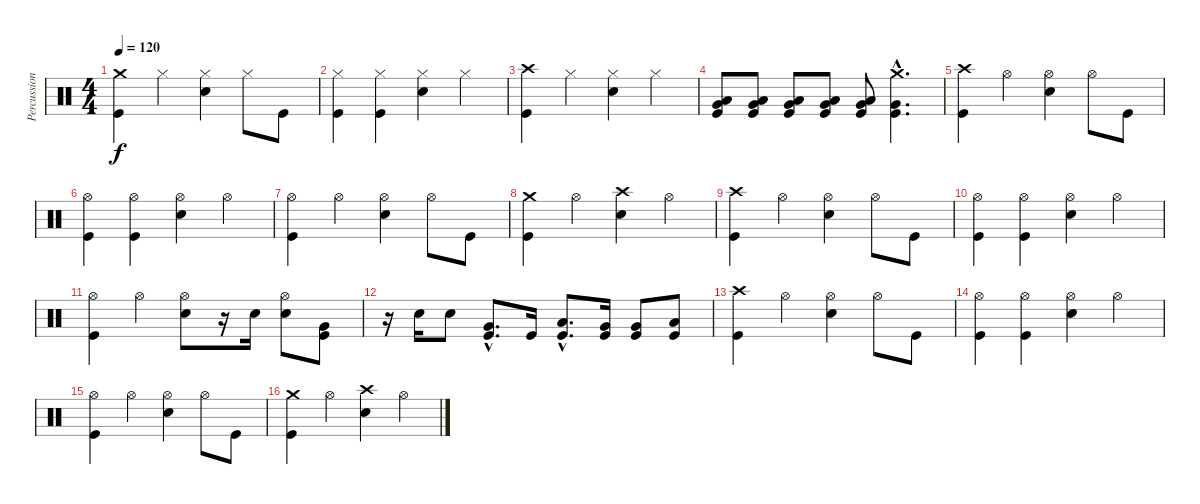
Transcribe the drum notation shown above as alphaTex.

\track ("Percussion" "Percussion") {instrument percussion}
\staff {score}
\articulation defaults
\ts (4 4)
\tempo 120
\clef neutral
\ks c
("Crash medium (hit)" "Kick (hit)").4{dy f} "Hi-Hat (closed)".4 ("Hi-Hat (closed)" "Snare (hit) 2").4 "Hi-Hat (closed)".8 "Kick (hit)".8 |
("Hi-Hat (closed)" "Kick (hit)").4 ("Hi-Hat (closed)" "Kick (hit)").4 ("Hi-Hat (closed)" "Snare (hit) 2").4 "Hi-Hat (closed)".4 |
("Crash high (hit)" "Kick (hit)").4 "Hi-Hat (closed)".4 ("Hi-Hat (closed)" "Snare (hit) 2").4 "Hi-Hat (closed)".4 |
("Low Tom (hit)" "Very Low Tom (hit)" "Kick (hit)").8 ("Low Tom (hit)" "Very Low Tom (hit)" "Kick (hit)").8 ("Low Tom (hit)" "Very Low Tom (hit)" "Kick (hit)").8 ("Low Tom (hit)" "Very Low Tom (hit)" "Kick (hit)").8 ("Low Tom (hit)" "Very Low Tom (hit)" "Kick (hit)").8 ("Crash medium (hit)"{hac} "Very Low Tom (hit)"{hac} "Kick (hit)"{hac}).4{d} |
("Crash high (hit)" "Kick (hit)").4 "Hi-Hat (open)".4 ("Hi-Hat (open)" "Snare (hit) 2").4 "Hi-Hat (open)".8 "Kick (hit)".8 |
("Hi-Hat (open)" "Kick (hit)").4 ("Hi-Hat (open)" "Kick (hit)").4 ("Hi-Hat (open)" "Snare (hit) 2").4 "Hi-Hat (open)".4 |
("Hi-Hat (open)" "Kick (hit)").4 "Hi-Hat (open)".4 ("Hi-Hat (open)" "Snare (hit) 2").4 "Hi-Hat (open)".8 "Kick (hit)".8 |
("Crash medium (hit)" "Kick (hit)").4 "Hi-Hat (open)".4 ("Crash high (hit)" "Snare (hit) 2").4 "Hi-Hat (open)".4 |
("Crash high (hit)" "Kick (hit)").4 "Hi-Hat (open)".4 ("Hi-Hat (open)" "Snare (hit) 2").4 "Hi-Hat (open)".8 "Kick (hit)".8 |
("Hi-Hat (open)" "Kick (hit)").4 ("Hi-Hat (open)" "Kick (hit)").4 ("Hi-Hat (open)" "Snare (hit) 2").4 "Hi-Hat (open)".4 |
("Hi-Hat (open)" "Kick (hit)").4 "Hi-Hat (open)".4 ("Hi-Hat (open)" "Snare (hit) 2").8 r.16 "Snare (hit) 2".16 ("Hi-Hat (open)" "Snare (hit) 2").8 ("Very Low Tom (hit)" "Kick (hit)").8 |
r.16 "Snare (hit) 2".16 "Snare (hit) 2".8 ("Very Low Tom (hit)"{hac} "Kick (hit)"{hac}).8{d} "Kick (hit)".16 ("Low Tom (hit)"{hac} "Kick (hit)"{hac}).8{d} ("Very Low Tom (hit)" "Kick (hit)").16 ("Very Low Tom (hit)" "Kick (hit)").8 ("Low Floor Tom (hit)" "Kick (hit)").8 |
("Crash high (hit)" "Kick (hit)").4 "Hi-Hat (open)".4 ("Hi-Hat (open)" "Snare (hit) 2").4 "Hi-Hat (open)".8 "Kick (hit)".8 |
("Hi-Hat (open)" "Kick (hit)").4 ("Hi-Hat (open)" "Kick (hit)").4 ("Hi-Hat (open)" "Snare (hit) 2").4 "Hi-Hat (open)".4 |
("Hi-Hat (open)" "Kick (hit)").4 "Hi-Hat (open)".4 ("Hi-Hat (open)" "Snare (hit) 2").4 "Hi-Hat (open)".8 "Kick (hit)".8 |
("Crash medium (hit)" "Kick (hit)").4 "Hi-Hat (open)".4 ("Crash high (hit)" "Snare (hit) 2").4 "Hi-Hat (open)".4
